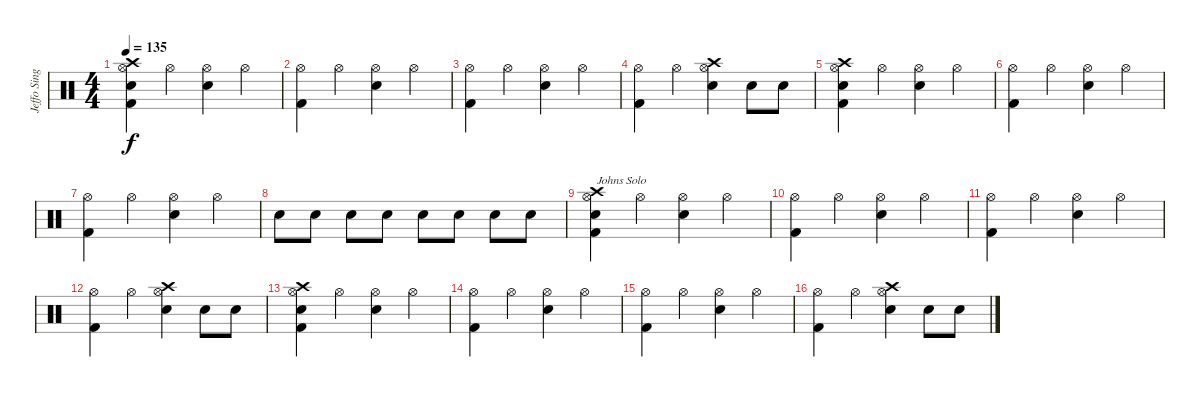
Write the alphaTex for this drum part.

\track ("Jeffo Singer" "Jeffo Sing") {instrument percussion}
\staff {score}
\articulation defaults
\ts (4 4)
\tempo 135
\clef neutral
\ks c
("Hi-Hat (open)" "Kick (hit) 2" "Snare (hit) 2" "Crash high (hit)").4{dy f} "Hi-Hat (open)".4 ("Hi-Hat (open)" "Snare (hit) 2").4 "Hi-Hat (open)".4 |
("Hi-Hat (open)" "Kick (hit) 2").4 "Hi-Hat (open)".4 ("Hi-Hat (open)" "Snare (hit) 2").4 "Hi-Hat (open)".4 |
("Hi-Hat (open)" "Kick (hit) 2").4 "Hi-Hat (open)".4 ("Hi-Hat (open)" "Snare (hit) 2").4 "Hi-Hat (open)".4 |
("Hi-Hat (open)" "Kick (hit) 2").4 "Hi-Hat (open)".4 ("Hi-Hat (open)" "Snare (hit) 2" "Crash high (hit)").4 "Snare (hit) 2".8 "Snare (hit) 2".8 |
("Hi-Hat (open)" "Kick (hit) 2" "Snare (hit) 2" "Crash high (hit)").4 "Hi-Hat (open)".4 ("Hi-Hat (open)" "Snare (hit) 2").4 "Hi-Hat (open)".4 |
("Hi-Hat (open)" "Kick (hit) 2").4 "Hi-Hat (open)".4 ("Hi-Hat (open)" "Snare (hit) 2").4 "Hi-Hat (open)".4 |
("Hi-Hat (open)" "Kick (hit) 2").4 "Hi-Hat (open)".4 ("Hi-Hat (open)" "Snare (hit) 2").4 "Hi-Hat (open)".4 |
"Snare (hit) 2".8 "Snare (hit) 2".8 "Snare (hit) 2".8 "Snare (hit) 2".8 "Snare (hit) 2".8 "Snare (hit) 2".8 "Snare (hit) 2".8 "Snare (hit) 2".8 |
("Hi-Hat (open)" "Kick (hit) 2" "Snare (hit) 2" "Crash high (hit)").4{txt "Johns Solo"} "Hi-Hat (open)".4 ("Hi-Hat (open)" "Snare (hit) 2").4 "Hi-Hat (open)".4 |
("Hi-Hat (open)" "Kick (hit) 2").4 "Hi-Hat (open)".4 ("Hi-Hat (open)" "Snare (hit) 2").4 "Hi-Hat (open)".4 |
("Hi-Hat (open)" "Kick (hit) 2").4 "Hi-Hat (open)".4 ("Hi-Hat (open)" "Snare (hit) 2").4 "Hi-Hat (open)".4 |
("Hi-Hat (open)" "Kick (hit) 2").4 "Hi-Hat (open)".4 ("Hi-Hat (open)" "Snare (hit) 2" "Crash high (hit)").4 "Snare (hit) 2".8 "Snare (hit) 2".8 |
("Hi-Hat (open)" "Kick (hit) 2" "Snare (hit) 2" "Crash high (hit)").4 "Hi-Hat (open)".4 ("Hi-Hat (open)" "Snare (hit) 2").4 "Hi-Hat (open)".4 |
("Hi-Hat (open)" "Kick (hit) 2").4 "Hi-Hat (open)".4 ("Hi-Hat (open)" "Snare (hit) 2").4 "Hi-Hat (open)".4 |
("Hi-Hat (open)" "Kick (hit) 2").4 "Hi-Hat (open)".4 ("Hi-Hat (open)" "Snare (hit) 2").4 "Hi-Hat (open)".4 |
("Hi-Hat (open)" "Kick (hit) 2").4 "Hi-Hat (open)".4 ("Hi-Hat (open)" "Snare (hit) 2" "Crash high (hit)").4 "Snare (hit) 2".8 "Snare (hit) 2".8
